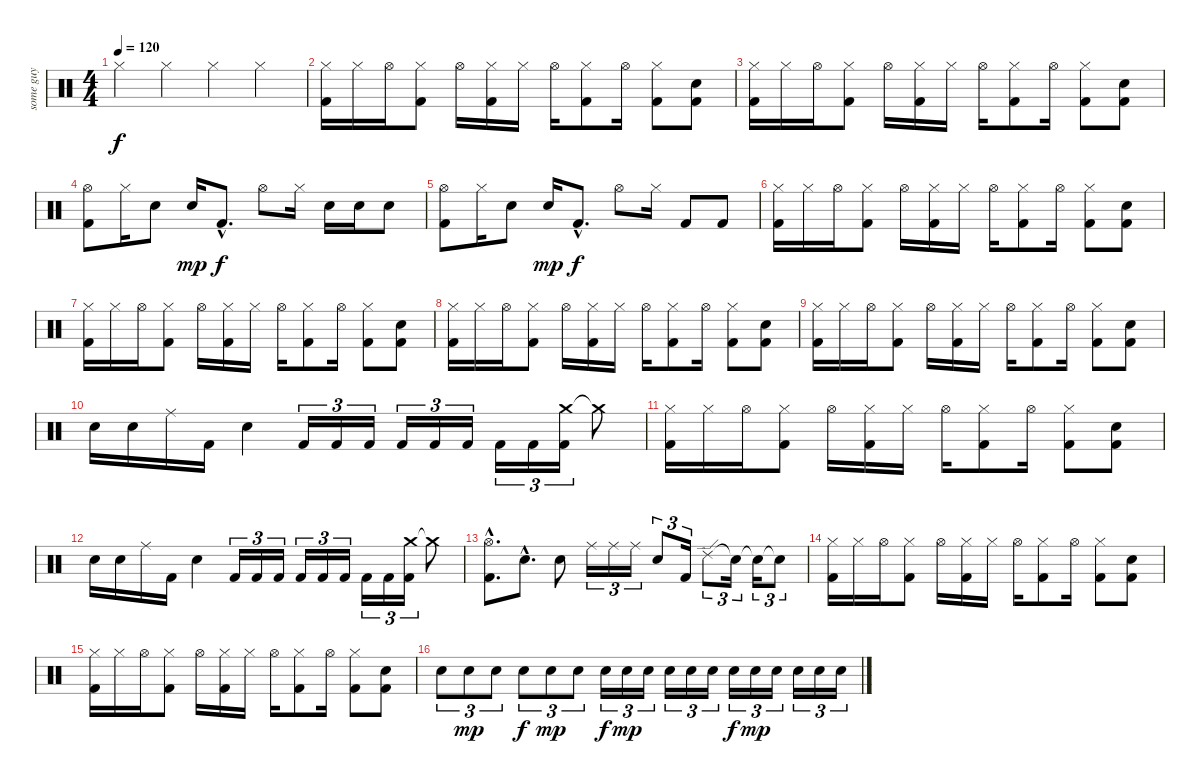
\track ("some guy" "some guy") {instrument percussion}
\staff {score}
\articulation defaults
\ts (4 4)
\tempo 120
\clef neutral
\ks c "Hi-Hat (closed)".4{dy f} "Hi-Hat (closed)".4 "Hi-Hat (closed)".4 "Hi-Hat (closed)".4
|
("Hi-Hat (closed)" "Kick (hit) 2").16 "Hi-Hat (closed)".16 "Hi-Hat (open)".16 ("Hi-Hat (closed)" "Kick (hit) 2").8 "Hi-Hat (open)".16 ("Hi-Hat (closed)" "Kick (hit) 2").16 "Hi-Hat (closed)".16 "Hi-Hat (open)".16 ("Hi-Hat (closed)" "Kick (hit) 2").8 "Hi-Hat (open)".16 ("Hi-Hat (closed)" "Kick (hit) 2").8 ("Electric Snare (hit)" "Kick (hit) 2").8 |
("Hi-Hat (closed)" "Kick (hit) 2").16 "Hi-Hat (closed)".16 "Hi-Hat (open)".16 ("Hi-Hat (closed)" "Kick (hit) 2").8 "Hi-Hat (open)".16 ("Hi-Hat (closed)" "Kick (hit) 2").16 "Hi-Hat (closed)".16 "Hi-Hat (open)".16 ("Hi-Hat (closed)" "Kick (hit) 2").8 "Hi-Hat (open)".16 ("Hi-Hat (closed)" "Kick (hit) 2").8 ("Electric Snare (hit)" "Kick (hit) 2").8 |
("Hi-Hat (open)" "Kick (hit) 2").8 "Hi-Hat (closed)".16 "Electric Snare (hit)".8 "Electric Snare (hit)".16{dy mp} "Kick (hit) 2"{hac}.8{d dy f} "Hi-Hat (open)".8 "Hi-Hat (closed)".16 "Electric Snare (hit)".16 "Electric Snare (hit)".16 "Electric Snare (hit)".8 |
("Hi-Hat (open)" "Kick (hit) 2").8 "Hi-Hat (closed)".16 "Electric Snare (hit)".8 "Electric Snare (hit)".16{dy mp} "Kick (hit) 2"{hac}.8{d dy f} "Hi-Hat (open)".8 "Hi-Hat (closed)".16 "Kick (hit) 2".8 "Kick (hit) 2".8 |
("Hi-Hat (closed)" "Kick (hit) 2").16 "Hi-Hat (closed)".16 "Hi-Hat (open)".16 ("Hi-Hat (closed)" "Kick (hit) 2").8 "Hi-Hat (open)".16 ("Hi-Hat (closed)" "Kick (hit) 2").16 "Hi-Hat (closed)".16 "Hi-Hat (open)".16 ("Hi-Hat (closed)" "Kick (hit) 2").8 "Hi-Hat (open)".16 ("Hi-Hat (closed)" "Kick (hit) 2").8 ("Electric Snare (hit)" "Kick (hit) 2").8 |
("Hi-Hat (closed)" "Kick (hit) 2").16 "Hi-Hat (closed)".16 "Hi-Hat (open)".16 ("Hi-Hat (closed)" "Kick (hit) 2").8 "Hi-Hat (open)".16 ("Hi-Hat (closed)" "Kick (hit) 2").16 "Hi-Hat (closed)".16 "Hi-Hat (open)".16 ("Hi-Hat (closed)" "Kick (hit) 2").8 "Hi-Hat (open)".16 ("Hi-Hat (closed)" "Kick (hit) 2").8 ("Electric Snare (hit)" "Kick (hit) 2").8 |
("Hi-Hat (closed)" "Kick (hit) 2").16 "Hi-Hat (closed)".16 "Hi-Hat (open)".16 ("Hi-Hat (closed)" "Kick (hit) 2").8 "Hi-Hat (open)".16 ("Hi-Hat (closed)" "Kick (hit) 2").16 "Hi-Hat (closed)".16 "Hi-Hat (open)".16 ("Hi-Hat (closed)" "Kick (hit) 2").8 "Hi-Hat (open)".16 ("Hi-Hat (closed)" "Kick (hit) 2").8 ("Electric Snare (hit)" "Kick (hit) 2").8 |
("Hi-Hat (closed)" "Kick (hit) 2").16 "Hi-Hat (closed)".16 "Hi-Hat (open)".16 ("Hi-Hat (closed)" "Kick (hit) 2").8 "Hi-Hat (open)".16 ("Hi-Hat (closed)" "Kick (hit) 2").16 "Hi-Hat (closed)".16 "Hi-Hat (open)".16 ("Hi-Hat (closed)" "Kick (hit) 2").8 "Hi-Hat (open)".16 ("Hi-Hat (closed)" "Kick (hit) 2").8 ("Electric Snare (hit)" "Kick (hit) 2").8 |
"Electric Snare (hit)".16 "Electric Snare (hit)".16 "Ride (middle)".16 "Kick (hit) 2".16 "Electric Snare (hit)".4 "Kick (hit) 2".16{tu (3 2)} "Kick (hit) 2".16{tu (3 2)} "Kick (hit) 2".16{tu (3 2)} "Kick (hit) 2".16{tu (3 2)} "Kick (hit) 2".16{tu (3 2)} "Kick (hit) 2".16{tu (3 2)} "Kick (hit) 2".16{tu (3 2)} "Kick (hit) 2".16{tu (3 2)} ("Crash medium (hit)" "Kick (hit) 2").16{tu (3 2)} "Crash medium (hit)"{t}.8 |
("Hi-Hat (closed)" "Kick (hit) 2").16 "Hi-Hat (closed)".16 "Hi-Hat (open)".16 ("Hi-Hat (closed)" "Kick (hit) 2").8 "Hi-Hat (open)".16 ("Hi-Hat (closed)" "Kick (hit) 2").16 "Hi-Hat (closed)".16 "Hi-Hat (open)".16 ("Hi-Hat (closed)" "Kick (hit) 2").8 "Hi-Hat (open)".16 ("Hi-Hat (closed)" "Kick (hit) 2").8 ("Electric Snare (hit)" "Kick (hit) 2").8 |
"Electric Snare (hit)".16 "Electric Snare (hit)".16 "Ride (middle)".16 "Kick (hit) 2".16 "Electric Snare (hit)".4 "Kick (hit) 2".16{tu (3 2)} "Kick (hit) 2".16{tu (3 2)} "Kick (hit) 2".16{tu (3 2)} "Kick (hit) 2".16{tu (3 2)} "Kick (hit) 2".16{tu (3 2)} "Kick (hit) 2".16{tu (3 2)} "Kick (hit) 2".16{tu (3 2)} "Kick (hit) 2".16{tu (3 2)} ("Crash medium (hit)" "Kick (hit) 2").16{tu (3 2)} "Crash medium (hit)"{t}.8 |
("Hi-Hat (open)"{hac} "Kick (hit) 2"{hac}).8{d} "Electric Snare (hit)"{hac}.8{d} "Electric Snare (hit)".8 "Ride (middle)".16{tu (3 2)} "Ride (middle)".16{tu (3 2)} "Ride (middle)".16{tu (3 2)} "Electric Snare (hit)".8{tu (3 2)} "Kick (hit) 2".16{tu (3 2)} "Ride (edge) 2".8{tu (3 2)} "Snare (hit)"{t}.16{tu (3 2)} "Snare (hit)"{t}.16{tu (3 2)} "Snare (hit)"{t}.8{tu (3 2)} |
("Hi-Hat (closed)" "Kick (hit) 2").16 "Hi-Hat (closed)".16 "Hi-Hat (open)".16 ("Hi-Hat (closed)" "Kick (hit) 2").8 "Hi-Hat (open)".16 ("Hi-Hat (closed)" "Kick (hit) 2").16 "Hi-Hat (closed)".16 "Hi-Hat (open)".16 ("Hi-Hat (closed)" "Kick (hit) 2").8 "Hi-Hat (open)".16 ("Hi-Hat (closed)" "Kick (hit) 2").8 ("Electric Snare (hit)" "Kick (hit) 2").8 |
("Hi-Hat (closed)" "Kick (hit) 2").16 "Hi-Hat (closed)".16 "Hi-Hat (open)".16 ("Hi-Hat (closed)" "Kick (hit) 2").8 "Hi-Hat (open)".16 ("Hi-Hat (closed)" "Kick (hit) 2").16 "Hi-Hat (closed)".16 "Hi-Hat (open)".16 ("Hi-Hat (closed)" "Kick (hit) 2").8 "Hi-Hat (open)".16 ("Hi-Hat (closed)" "Kick (hit) 2").8 ("Electric Snare (hit)" "Kick (hit) 2").8 |
"Electric Snare (hit)".8{tu (3 2)} "Electric Snare (hit)".8{tu (3 2) dy mp} "Electric Snare (hit)".8{tu (3 2)} "Electric Snare (hit)".8{tu (3 2) dy f} "Electric Snare (hit)".8{tu (3 2) dy mp} "Electric Snare (hit)".8{tu (3 2)} "Electric Snare (hit)".16{tu (3 2) dy f} "Electric Snare (hit)".16{tu (3 2) dy mp} "Electric Snare (hit)".16{tu (3 2)} "Electric Snare (hit)".16{tu (3 2)} "Electric Snare (hit)".16{tu (3 2)} "Electric Snare (hit)".16{tu (3 2)} "Electric Snare (hit)".16{tu (3 2) dy f} "Electric Snare (hit)".16{tu (3 2) dy mp} "Electric Snare (hit)".16{tu (3 2)} "Electric Snare (hit)".16{tu (3 2)} "Electric Snare (hit)".16{tu (3 2)} "Electric Snare (hit)".16{tu (3 2)}
